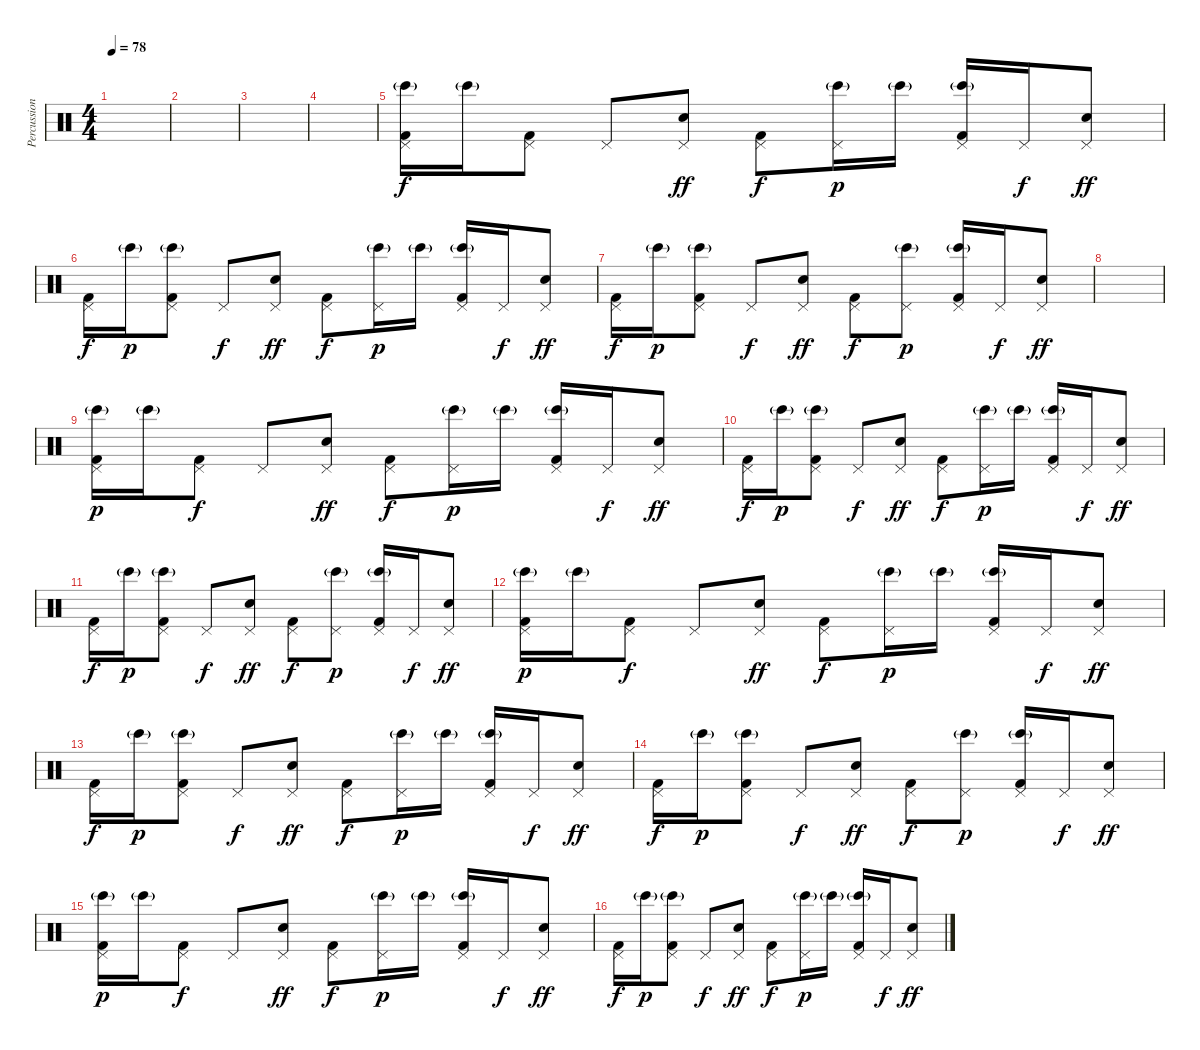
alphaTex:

\track ("Percussions" "Percussion") {instrument percussion}
\staff {score}
\articulation defaults
\ts (4 4)
\tempo 78
\clef neutral
\ks c
|
|
|
|
("Pedal Hi-Hat (hit)" "Bongo High (hit)"{g} "Kick (hit) 2").16 "Bongo High (hit)"{g}.16 ("Pedal Hi-Hat (hit)" "Kick (hit) 2").8{dy f} "Pedal Hi-Hat (hit)".8 ("Pedal Hi-Hat (hit)" "Electric Snare (hit)").8{dy ff} ("Pedal Hi-Hat (hit)" "Kick (hit) 2").8{dy f} ("Pedal Hi-Hat (hit)" "Bongo High (hit)"{g}).16{dy p} "Bongo High (hit)"{g}.16 ("Pedal Hi-Hat (hit)" "Bongo High (hit)"{g} "Kick (hit) 2").16 "Pedal Hi-Hat (hit)".16{dy f} ("Pedal Hi-Hat (hit)" "Electric Snare (hit)").8{dy ff} |
("Pedal Hi-Hat (hit)" "Kick (hit) 2").16{dy f} "Bongo High (hit)"{g}.16{dy p} ("Pedal Hi-Hat (hit)" "Bongo High (hit)"{g} "Kick (hit) 2").8 "Pedal Hi-Hat (hit)".8{dy f} ("Pedal Hi-Hat (hit)" "Electric Snare (hit)").8{dy ff} ("Pedal Hi-Hat (hit)" "Kick (hit) 2").8{dy f} ("Pedal Hi-Hat (hit)" "Bongo High (hit)"{g}).16{dy p} "Bongo High (hit)"{g}.16 ("Pedal Hi-Hat (hit)" "Bongo High (hit)"{g} "Kick (hit) 2").16 "Pedal Hi-Hat (hit)".16{dy f} ("Pedal Hi-Hat (hit)" "Electric Snare (hit)").8{dy ff} |
("Pedal Hi-Hat (hit)" "Kick (hit) 2").16{dy f} "Bongo High (hit)"{g}.16{dy p} ("Pedal Hi-Hat (hit)" "Bongo High (hit)"{g} "Kick (hit) 2").8 "Pedal Hi-Hat (hit)".8{dy f} ("Pedal Hi-Hat (hit)" "Electric Snare (hit)").8{dy ff} ("Pedal Hi-Hat (hit)" "Kick (hit) 2").8{dy f} ("Pedal Hi-Hat (hit)" "Bongo High (hit)"{g}).8{dy p} ("Pedal Hi-Hat (hit)" "Bongo High (hit)"{g} "Kick (hit) 2").16 "Pedal Hi-Hat (hit)".16{dy f} ("Pedal Hi-Hat (hit)" "Electric Snare (hit)").8{dy ff} |
|
("Pedal Hi-Hat (hit)" "Bongo High (hit)"{g} "Kick (hit) 2").16{dy p} "Bongo High (hit)"{g}.16 ("Pedal Hi-Hat (hit)" "Kick (hit) 2").8{dy f} "Pedal Hi-Hat (hit)".8 ("Pedal Hi-Hat (hit)" "Electric Snare (hit)").8{dy ff} ("Pedal Hi-Hat (hit)" "Kick (hit) 2").8{dy f} ("Pedal Hi-Hat (hit)" "Bongo High (hit)"{g}).16{dy p} "Bongo High (hit)"{g}.16 ("Pedal Hi-Hat (hit)" "Bongo High (hit)"{g} "Kick (hit) 2").16 "Pedal Hi-Hat (hit)".16{dy f} ("Pedal Hi-Hat (hit)" "Electric Snare (hit)").8{dy ff} |
("Pedal Hi-Hat (hit)" "Kick (hit) 2").16{dy f} "Bongo High (hit)"{g}.16{dy p} ("Pedal Hi-Hat (hit)" "Bongo High (hit)"{g} "Kick (hit) 2").8 "Pedal Hi-Hat (hit)".8{dy f} ("Pedal Hi-Hat (hit)" "Electric Snare (hit)").8{dy ff} ("Pedal Hi-Hat (hit)" "Kick (hit) 2").8{dy f} ("Pedal Hi-Hat (hit)" "Bongo High (hit)"{g}).16{dy p} "Bongo High (hit)"{g}.16 ("Pedal Hi-Hat (hit)" "Bongo High (hit)"{g} "Kick (hit) 2").16 "Pedal Hi-Hat (hit)".16{dy f} ("Pedal Hi-Hat (hit)" "Electric Snare (hit)").8{dy ff} |
("Pedal Hi-Hat (hit)" "Kick (hit) 2").16{dy f} "Bongo High (hit)"{g}.16{dy p} ("Pedal Hi-Hat (hit)" "Bongo High (hit)"{g} "Kick (hit) 2").8 "Pedal Hi-Hat (hit)".8{dy f} ("Pedal Hi-Hat (hit)" "Electric Snare (hit)").8{dy ff} ("Pedal Hi-Hat (hit)" "Kick (hit) 2").8{dy f} ("Pedal Hi-Hat (hit)" "Bongo High (hit)"{g}).8{dy p} ("Pedal Hi-Hat (hit)" "Bongo High (hit)"{g} "Kick (hit) 2").16 "Pedal Hi-Hat (hit)".16{dy f} ("Pedal Hi-Hat (hit)" "Electric Snare (hit)").8{dy ff} |
("Pedal Hi-Hat (hit)" "Bongo High (hit)"{g} "Kick (hit) 2").16{dy p} "Bongo High (hit)"{g}.16 ("Pedal Hi-Hat (hit)" "Kick (hit) 2").8{dy f} "Pedal Hi-Hat (hit)".8 ("Pedal Hi-Hat (hit)" "Electric Snare (hit)").8{dy ff} ("Pedal Hi-Hat (hit)" "Kick (hit) 2").8{dy f} ("Pedal Hi-Hat (hit)" "Bongo High (hit)"{g}).16{dy p} "Bongo High (hit)"{g}.16 ("Pedal Hi-Hat (hit)" "Bongo High (hit)"{g} "Kick (hit) 2").16 "Pedal Hi-Hat (hit)".16{dy f} ("Pedal Hi-Hat (hit)" "Electric Snare (hit)").8{dy ff} |
("Pedal Hi-Hat (hit)" "Kick (hit) 2").16{dy f} "Bongo High (hit)"{g}.16{dy p} ("Pedal Hi-Hat (hit)" "Bongo High (hit)"{g} "Kick (hit) 2").8 "Pedal Hi-Hat (hit)".8{dy f} ("Pedal Hi-Hat (hit)" "Electric Snare (hit)").8{dy ff} ("Pedal Hi-Hat (hit)" "Kick (hit) 2").8{dy f} ("Pedal Hi-Hat (hit)" "Bongo High (hit)"{g}).16{dy p} "Bongo High (hit)"{g}.16 ("Pedal Hi-Hat (hit)" "Bongo High (hit)"{g} "Kick (hit) 2").16 "Pedal Hi-Hat (hit)".16{dy f} ("Pedal Hi-Hat (hit)" "Electric Snare (hit)").8{dy ff} |
("Pedal Hi-Hat (hit)" "Kick (hit) 2").16{dy f} "Bongo High (hit)"{g}.16{dy p} ("Pedal Hi-Hat (hit)" "Bongo High (hit)"{g} "Kick (hit) 2").8 "Pedal Hi-Hat (hit)".8{dy f} ("Pedal Hi-Hat (hit)" "Electric Snare (hit)").8{dy ff} ("Pedal Hi-Hat (hit)" "Kick (hit) 2").8{dy f} ("Pedal Hi-Hat (hit)" "Bongo High (hit)"{g}).8{dy p} ("Pedal Hi-Hat (hit)" "Bongo High (hit)"{g} "Kick (hit) 2").16 "Pedal Hi-Hat (hit)".16{dy f} ("Pedal Hi-Hat (hit)" "Electric Snare (hit)").8{dy ff} |
("Pedal Hi-Hat (hit)" "Bongo High (hit)"{g} "Kick (hit) 2").16{dy p} "Bongo High (hit)"{g}.16 ("Pedal Hi-Hat (hit)" "Kick (hit) 2").8{dy f} "Pedal Hi-Hat (hit)".8 ("Pedal Hi-Hat (hit)" "Electric Snare (hit)").8{dy ff} ("Pedal Hi-Hat (hit)" "Kick (hit) 2").8{dy f} ("Pedal Hi-Hat (hit)" "Bongo High (hit)"{g}).16{dy p} "Bongo High (hit)"{g}.16 ("Pedal Hi-Hat (hit)" "Bongo High (hit)"{g} "Kick (hit) 2").16 "Pedal Hi-Hat (hit)".16{dy f} ("Pedal Hi-Hat (hit)" "Electric Snare (hit)").8{dy ff} |
("Pedal Hi-Hat (hit)" "Kick (hit) 2").16{dy f} "Bongo High (hit)"{g}.16{dy p} ("Pedal Hi-Hat (hit)" "Bongo High (hit)"{g} "Kick (hit) 2").8 "Pedal Hi-Hat (hit)".8{dy f} ("Pedal Hi-Hat (hit)" "Electric Snare (hit)").8{dy ff} ("Pedal Hi-Hat (hit)" "Kick (hit) 2").8{dy f} ("Pedal Hi-Hat (hit)" "Bongo High (hit)"{g}).16{dy p} "Bongo High (hit)"{g}.16 ("Pedal Hi-Hat (hit)" "Bongo High (hit)"{g} "Kick (hit) 2").16 "Pedal Hi-Hat (hit)".16{dy f} ("Pedal Hi-Hat (hit)" "Electric Snare (hit)").8{dy ff}
